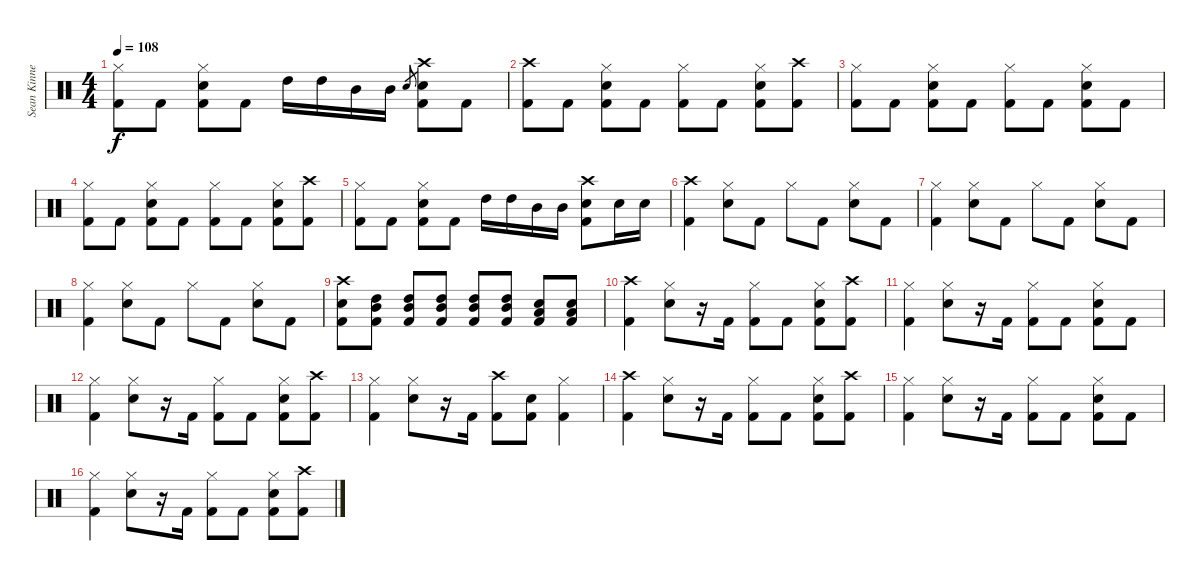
\track ("Sean Kinney- Drums" "Sean Kinne") {instrument percussion}
\staff {score}
\articulation defaults
\ts (4 4)
\tempo 108
\clef neutral
\ks c
("Hi-Hat (closed)" "Kick (hit) 2").8{dy f} "Kick (hit) 2".8 ("Hi-Hat (closed)" "Electric Snare (hit)" "Kick (hit) 2").8 "Kick (hit) 2".8 "High Tom (hit)".16 "High Tom (hit)".16 "Mid Tom (hit)".16 "Mid Tom (hit)".16 "Electric Snare (hit)".8{gr} ("Crash high (hit)" "Electric Snare (hit)" "Kick (hit) 2").8 "Kick (hit) 2".8 |
("Crash high (hit)" "Kick (hit) 2").8 "Kick (hit) 2".8 ("Hi-Hat (closed)" "Electric Snare (hit)" "Kick (hit) 2").8 "Kick (hit) 2".8 ("Hi-Hat (closed)" "Kick (hit) 2").8 "Kick (hit) 2".8 ("Hi-Hat (closed)" "Electric Snare (hit)" "Kick (hit) 2").8 ("Crash high (hit)" "Kick (hit) 2").8 |
("Hi-Hat (closed)" "Kick (hit) 2").8 "Kick (hit) 2".8 ("Hi-Hat (closed)" "Electric Snare (hit)" "Kick (hit) 2").8 "Kick (hit) 2".8 ("Hi-Hat (closed)" "Kick (hit) 2").8 "Kick (hit) 2".8 ("Hi-Hat (closed)" "Electric Snare (hit)" "Kick (hit) 2").8 "Kick (hit) 2".8 |
("Hi-Hat (closed)" "Kick (hit) 2").8 "Kick (hit) 2".8 ("Hi-Hat (closed)" "Electric Snare (hit)" "Kick (hit) 2").8 "Kick (hit) 2".8 ("Hi-Hat (closed)" "Kick (hit) 2").8 "Kick (hit) 2".8 ("Hi-Hat (closed)" "Electric Snare (hit)" "Kick (hit) 2").8 ("Crash high (hit)" "Kick (hit) 2").8 |
("Hi-Hat (closed)" "Kick (hit) 2").8 "Kick (hit) 2".8 ("Hi-Hat (closed)" "Electric Snare (hit)" "Kick (hit) 2").8 "Kick (hit) 2".8 "High Tom (hit)".16 "High Tom (hit)".16 "Mid Tom (hit)".16 "Mid Tom (hit)".16 ("Crash high (hit)" "Electric Snare (hit)" "Kick (hit) 2").8 "Electric Snare (hit)".16 "Electric Snare (hit)".16 |
("Crash high (hit)" "Kick (hit) 2").4 ("Hi-Hat (closed)" "Electric Snare (hit)").8 "Kick (hit) 2".8 "Hi-Hat (closed)".8 "Kick (hit) 2".8 ("Hi-Hat (closed)" "Electric Snare (hit)").8 "Kick (hit) 2".8 |
("Hi-Hat (closed)" "Kick (hit) 2").4 ("Hi-Hat (closed)" "Electric Snare (hit)").8 "Kick (hit) 2".8 "Hi-Hat (closed)".8 "Kick (hit) 2".8 ("Hi-Hat (closed)" "Electric Snare (hit)").8 "Kick (hit) 2".8 |
("Hi-Hat (closed)" "Kick (hit) 2").4 ("Hi-Hat (closed)" "Electric Snare (hit)").8 "Kick (hit) 2".8 "Hi-Hat (closed)".8 "Kick (hit) 2".8 ("Hi-Hat (closed)" "Electric Snare (hit)").8 "Kick (hit) 2".8 |
("Crash high (hit)" "Electric Snare (hit)" "Kick (hit) 2").8 ("Mid Tom (hit)" "High Tom (hit)" "Kick (hit) 2").8 ("Mid Tom (hit)" "High Tom (hit)" "Kick (hit) 2").8 ("Mid Tom (hit)" "High Tom (hit)" "Kick (hit) 2").8 ("Mid Tom (hit)" "High Tom (hit)" "Kick (hit) 2").8 ("Mid Tom (hit)" "High Tom (hit)" "Kick (hit) 2").8 ("Electric Snare (hit)" "Low Tom (hit)" "Kick (hit) 2").8 ("Electric Snare (hit)" "Low Tom (hit)" "Kick (hit) 2").8 |
("Crash high (hit)" "Kick (hit) 2").4 ("Hi-Hat (closed)" "Electric Snare (hit)").8 r.16 "Kick (hit) 2".16 ("Hi-Hat (closed)" "Kick (hit) 2").8 "Kick (hit) 2".8 ("Hi-Hat (closed)" "Electric Snare (hit)" "Kick (hit) 2").8 ("Crash high (hit)" "Kick (hit) 2").8 |
("Hi-Hat (closed)" "Kick (hit) 2").4 ("Hi-Hat (closed)" "Electric Snare (hit)").8 r.16 "Kick (hit) 2".16 ("Hi-Hat (closed)" "Kick (hit) 2").8 "Kick (hit) 2".8 ("Hi-Hat (closed)" "Electric Snare (hit)" "Kick (hit) 2").8 "Kick (hit) 2".8 |
("Hi-Hat (closed)" "Kick (hit) 2").4 ("Hi-Hat (closed)" "Electric Snare (hit)").8 r.16 "Kick (hit) 2".16 ("Hi-Hat (closed)" "Kick (hit) 2").8 "Kick (hit) 2".8 ("Hi-Hat (closed)" "Electric Snare (hit)" "Kick (hit) 2").8 ("Crash high (hit)" "Kick (hit) 2").8 |
("Hi-Hat (closed)" "Kick (hit) 2").4 ("Hi-Hat (closed)" "Electric Snare (hit)").8 r.16 "Kick (hit) 2".16 ("Crash high (hit)" "Kick (hit) 2").8 ("Electric Snare (hit)" "Kick (hit) 2").8 ("Hi-Hat (closed)" "Kick (hit) 2").4 |
("Crash high (hit)" "Kick (hit) 2").4 ("Hi-Hat (closed)" "Electric Snare (hit)").8 r.16 "Kick (hit) 2".16 ("Hi-Hat (closed)" "Kick (hit) 2").8 "Kick (hit) 2".8 ("Hi-Hat (closed)" "Electric Snare (hit)" "Kick (hit) 2").8 ("Crash high (hit)" "Kick (hit) 2").8 |
("Hi-Hat (closed)" "Kick (hit) 2").4 ("Hi-Hat (closed)" "Electric Snare (hit)").8 r.16 "Kick (hit) 2".16 ("Hi-Hat (closed)" "Kick (hit) 2").8 "Kick (hit) 2".8 ("Hi-Hat (closed)" "Electric Snare (hit)" "Kick (hit) 2").8 "Kick (hit) 2".8 |
("Hi-Hat (closed)" "Kick (hit) 2").4 ("Hi-Hat (closed)" "Electric Snare (hit)").8 r.16 "Kick (hit) 2".16 ("Hi-Hat (closed)" "Kick (hit) 2").8 "Kick (hit) 2".8 ("Hi-Hat (closed)" "Electric Snare (hit)" "Kick (hit) 2").8 ("Crash high (hit)" "Kick (hit) 2").8
